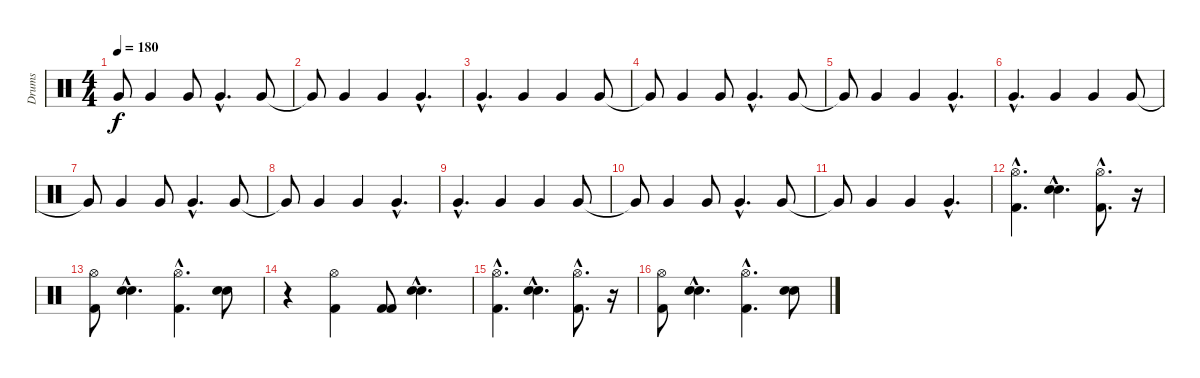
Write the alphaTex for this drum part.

\track ("Drums" "Drums") {instrument percussion}
\staff {score}
\articulation defaults
\ts (4 4)
\tempo 180
\clef neutral
\ks c "Very Low Tom (hit)"{t}.8{dy f} "Very Low Tom (hit)".4 "Very Low Tom (hit)".8 "Very Low Tom (hit)"{hac}.4{d} "Very Low Tom (hit)".8
|
"Very Low Tom (hit)"{t}.8 "Very Low Tom (hit)".4 "Very Low Tom (hit)".4 "Very Low Tom (hit)"{hac}.4{d} |
"Very Low Tom (hit)"{hac}.4{d} "Very Low Tom (hit)".4 "Very Low Tom (hit)".4 "Very Low Tom (hit)".8 |
"Very Low Tom (hit)"{t}.8 "Very Low Tom (hit)".4 "Very Low Tom (hit)".8 "Very Low Tom (hit)"{hac}.4{d} "Very Low Tom (hit)".8 |
"Very Low Tom (hit)"{t}.8 "Very Low Tom (hit)".4 "Very Low Tom (hit)".4 "Very Low Tom (hit)"{hac}.4{d} |
"Very Low Tom (hit)"{hac}.4{d} "Very Low Tom (hit)".4 "Very Low Tom (hit)".4 "Very Low Tom (hit)".8 |
"Very Low Tom (hit)"{t}.8 "Very Low Tom (hit)".4 "Very Low Tom (hit)".8 "Very Low Tom (hit)"{hac}.4{d} "Very Low Tom (hit)".8 |
"Very Low Tom (hit)"{t}.8 "Very Low Tom (hit)".4 "Very Low Tom (hit)".4 "Very Low Tom (hit)"{hac}.4{d} |
"Very Low Tom (hit)"{hac}.4{d} "Very Low Tom (hit)".4 "Very Low Tom (hit)".4 "Very Low Tom (hit)".8 |
"Very Low Tom (hit)"{t}.8 "Very Low Tom (hit)".4 "Very Low Tom (hit)".8 "Very Low Tom (hit)"{hac}.4{d} "Very Low Tom (hit)".8 |
"Very Low Tom (hit)"{t}.8 "Very Low Tom (hit)".4 "Very Low Tom (hit)".4 "Very Low Tom (hit)"{hac}.4{d} |
("Hi-Hat (open)"{hac} "Kick (hit) 2"{hac}).4{d} ("Snare (hit) 2"{hac} "Electric Snare (hit)"{hac}).4{d} ("Hi-Hat (open)"{hac} "Kick (hit) 2"{hac}).8{d} r.16 |
("Hi-Hat (open)" "Kick (hit) 2").8 ("Snare (hit) 2"{hac} "Electric Snare (hit)"{hac}).4{d} ("Hi-Hat (open)"{hac} "Kick (hit) 2"{hac}).4{d} ("Snare (hit) 2" "Electric Snare (hit)").8 |
r.4 ("Kick (hit) 2" "Hi-Hat (open)").4 ("Kick (hit) 2" "Kick (hit) 2").8 ("Electric Snare (hit)"{hac} "Snare (hit) 2"{hac}).4{d} |
("Hi-Hat (open)"{hac} "Kick (hit) 2"{hac}).4{d} ("Snare (hit) 2"{hac} "Electric Snare (hit)"{hac}).4{d} ("Hi-Hat (open)"{hac} "Kick (hit) 2"{hac}).8{d} r.16 |
("Hi-Hat (open)" "Kick (hit) 2").8 ("Snare (hit) 2"{hac} "Electric Snare (hit)"{hac}).4{d} ("Hi-Hat (open)"{hac} "Kick (hit) 2"{hac}).4{d} ("Snare (hit) 2" "Electric Snare (hit)").8
